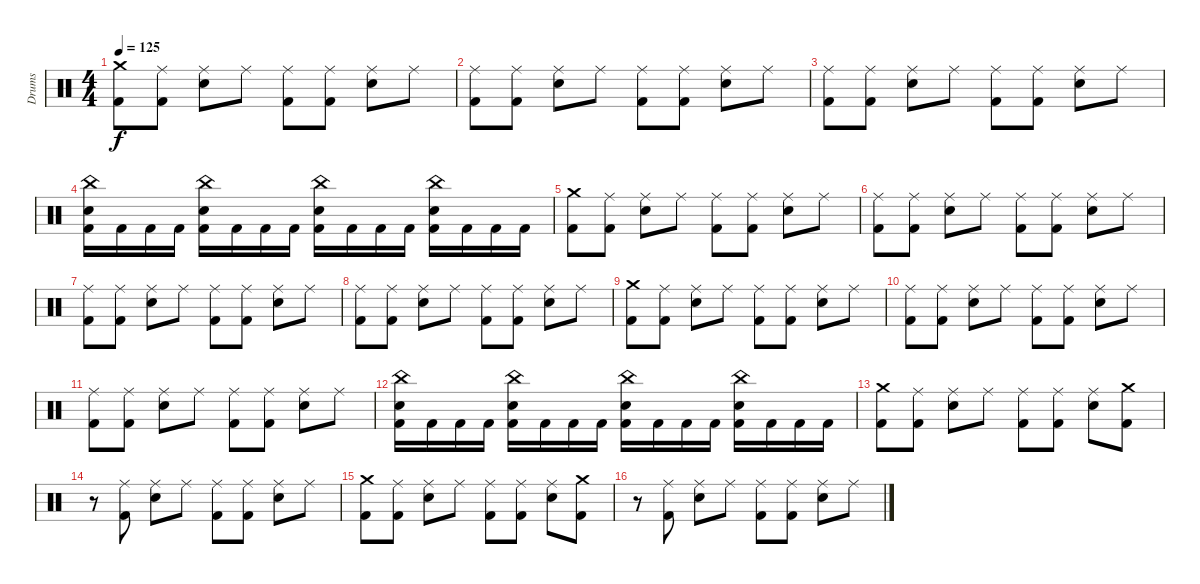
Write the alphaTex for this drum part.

\track ("Drums" "Drums") {instrument percussion}
\staff {score}
\articulation defaults
\ts (4 4)
\tempo 125
\clef neutral
\ks c
("Crash medium (hit)" "Kick (hit) 2").8{dy f} ("Ride (middle)" "Kick (hit) 2").8 ("Ride (middle)" "Snare (hit) 2").8 "Ride (middle)".8 ("Ride (middle)" "Kick (hit) 2").8 ("Ride (middle)" "Kick (hit) 2").8 ("Ride (middle)" "Snare (hit) 2").8 "Ride (middle)".8 |
("Ride (middle)" "Kick (hit) 2").8 ("Ride (middle)" "Kick (hit) 2").8 ("Ride (middle)" "Snare (hit) 2").8 "Ride (middle)".8 ("Ride (middle)" "Kick (hit) 2").8 ("Ride (middle)" "Kick (hit) 2").8 ("Ride (middle)" "Snare (hit) 2").8 "Ride (middle)".8 |
("Ride (middle)" "Kick (hit) 2").8 ("Ride (middle)" "Kick (hit) 2").8 ("Ride (middle)" "Snare (hit) 2").8 "Ride (middle)".8 ("Ride (middle)" "Kick (hit) 2").8 ("Ride (middle)" "Kick (hit) 2").8 ("Ride (middle)" "Snare (hit) 2").8 "Ride (middle)".8 |
("China (hit)" "Snare (hit) 2" "Kick (hit) 2").16 "Kick (hit) 2".16 "Kick (hit) 2".16 "Kick (hit) 2".16 ("China (hit)" "Snare (hit) 2" "Kick (hit) 2").16 "Kick (hit) 2".16 "Kick (hit) 2".16 "Kick (hit) 2".16 ("China (hit)" "Snare (hit) 2" "Kick (hit) 2").16 "Kick (hit) 2".16 "Kick (hit) 2".16 "Kick (hit) 2".16 ("China (hit)" "Snare (hit) 2" "Kick (hit) 2").16 "Kick (hit) 2".16 "Kick (hit) 2".16 "Kick (hit) 2".16 |
("Crash medium (hit)" "Kick (hit) 2").8 ("Ride (middle)" "Kick (hit) 2").8 ("Ride (middle)" "Snare (hit) 2").8 "Ride (middle)".8 ("Ride (middle)" "Kick (hit) 2").8 ("Ride (middle)" "Kick (hit) 2").8 ("Ride (middle)" "Snare (hit) 2").8 "Ride (middle)".8 |
("Ride (middle)" "Kick (hit) 2").8 ("Ride (middle)" "Kick (hit) 2").8 ("Ride (middle)" "Snare (hit) 2").8 "Ride (middle)".8 ("Ride (middle)" "Kick (hit) 2").8 ("Ride (middle)" "Kick (hit) 2").8 ("Ride (middle)" "Snare (hit) 2").8 "Ride (middle)".8 |
("Ride (middle)" "Kick (hit) 2").8 ("Ride (middle)" "Kick (hit) 2").8 ("Ride (middle)" "Snare (hit) 2").8 "Ride (middle)".8 ("Ride (middle)" "Kick (hit) 2").8 ("Ride (middle)" "Kick (hit) 2").8 ("Ride (middle)" "Snare (hit) 2").8 "Ride (middle)".8 |
("Ride (middle)" "Kick (hit) 2").8 ("Ride (middle)" "Kick (hit) 2").8 ("Ride (middle)" "Snare (hit) 2").8 "Ride (middle)".8 ("Ride (middle)" "Kick (hit) 2").8 ("Ride (middle)" "Kick (hit) 2").8 ("Ride (middle)" "Snare (hit) 2").8 "Ride (middle)".8 |
("Crash medium (hit)" "Kick (hit) 2").8 ("Ride (middle)" "Kick (hit) 2").8 ("Ride (middle)" "Snare (hit) 2").8 "Ride (middle)".8 ("Ride (middle)" "Kick (hit) 2").8 ("Ride (middle)" "Kick (hit) 2").8 ("Ride (middle)" "Snare (hit) 2").8 "Ride (middle)".8 |
("Ride (middle)" "Kick (hit) 2").8 ("Ride (middle)" "Kick (hit) 2").8 ("Ride (middle)" "Snare (hit) 2").8 "Ride (middle)".8 ("Ride (middle)" "Kick (hit) 2").8 ("Ride (middle)" "Kick (hit) 2").8 ("Ride (middle)" "Snare (hit) 2").8 "Ride (middle)".8 |
("Ride (middle)" "Kick (hit) 2").8 ("Ride (middle)" "Kick (hit) 2").8 ("Ride (middle)" "Snare (hit) 2").8 "Ride (middle)".8 ("Ride (middle)" "Kick (hit) 2").8 ("Ride (middle)" "Kick (hit) 2").8 ("Ride (middle)" "Snare (hit) 2").8 "Ride (middle)".8 |
("China (hit)" "Snare (hit) 2" "Kick (hit) 2").16 "Kick (hit) 2".16 "Kick (hit) 2".16 "Kick (hit) 2".16 ("China (hit)" "Snare (hit) 2" "Kick (hit) 2").16 "Kick (hit) 2".16 "Kick (hit) 2".16 "Kick (hit) 2".16 ("China (hit)" "Snare (hit) 2" "Kick (hit) 2").16 "Kick (hit) 2".16 "Kick (hit) 2".16 "Kick (hit) 2".16 ("China (hit)" "Snare (hit) 2" "Kick (hit) 2").16 "Kick (hit) 2".16 "Kick (hit) 2".16 "Kick (hit) 2".16 |
("Crash medium (hit)" "Kick (hit) 2").8 ("Ride (middle)" "Kick (hit) 2").8 ("Ride (middle)" "Snare (hit) 2").8 "Ride (middle)".8 ("Ride (middle)" "Kick (hit) 2").8 ("Ride (middle)" "Kick (hit) 2").8 ("Ride (middle)" "Snare (hit) 2").8 ("Crash medium (hit)" "Kick (hit) 2").8 |
r.8 ("Ride (middle)" "Kick (hit) 2").8 ("Ride (middle)" "Snare (hit) 2").8 "Ride (middle)".8 ("Ride (middle)" "Kick (hit) 2").8 ("Ride (middle)" "Kick (hit) 2").8 ("Ride (middle)" "Snare (hit) 2").8 "Ride (middle)".8 |
("Crash medium (hit)" "Kick (hit) 2").8 ("Ride (middle)" "Kick (hit) 2").8 ("Ride (middle)" "Snare (hit) 2").8 "Ride (middle)".8 ("Ride (middle)" "Kick (hit) 2").8 ("Ride (middle)" "Kick (hit) 2").8 ("Ride (middle)" "Snare (hit) 2").8 ("Crash medium (hit)" "Kick (hit) 2").8 |
r.8 ("Ride (middle)" "Kick (hit) 2").8 ("Ride (middle)" "Snare (hit) 2").8 "Ride (middle)".8 ("Ride (middle)" "Kick (hit) 2").8 ("Ride (middle)" "Kick (hit) 2").8 ("Ride (middle)" "Snare (hit) 2").8 "Ride (middle)".8
